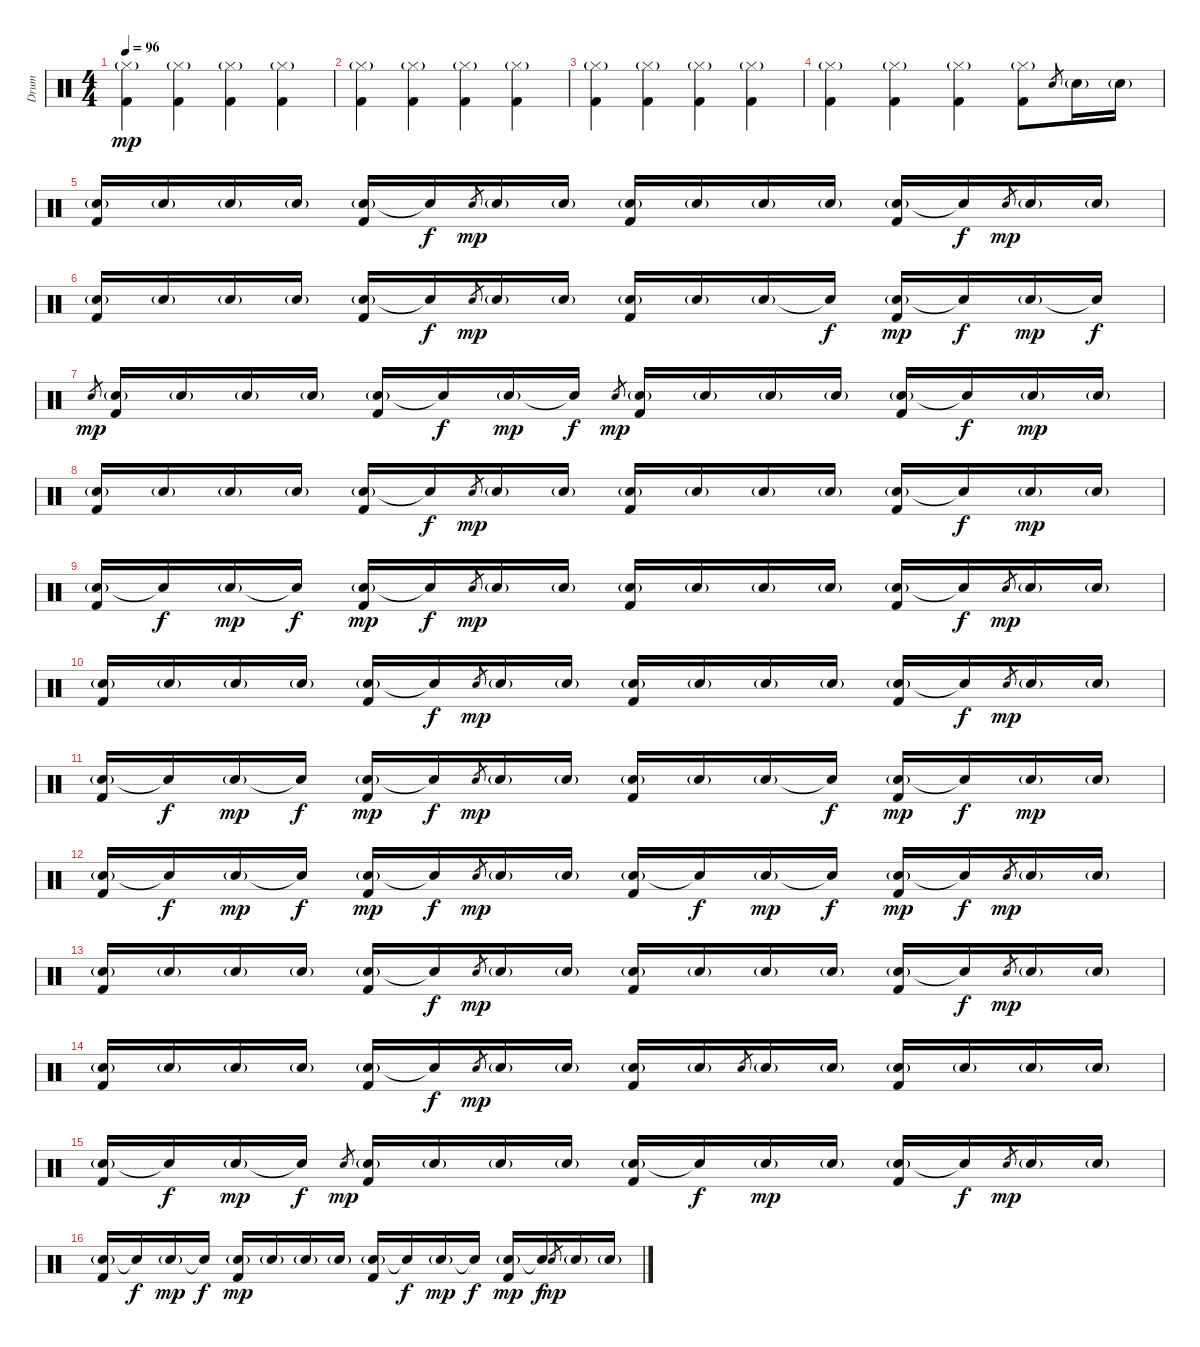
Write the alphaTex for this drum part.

\track ("Drum" "Drum") {instrument percussion}
\staff {score}
\articulation defaults
\ts (4 4)
\tempo 96
\clef neutral
\ks c
("Kick (hit) 2" "Hi-Hat (closed)"{g}).4{dy mp} ("Kick (hit) 2" "Hi-Hat (closed)"{g}).4 ("Kick (hit) 2" "Hi-Hat (closed)"{g}).4 ("Kick (hit) 2" "Hi-Hat (closed)"{g}).4 |
("Kick (hit) 2" "Hi-Hat (closed)"{g}).4 ("Kick (hit) 2" "Hi-Hat (closed)"{g}).4 ("Kick (hit) 2" "Hi-Hat (closed)"{g}).4 ("Kick (hit) 2" "Hi-Hat (closed)"{g}).4 |
("Kick (hit) 2" "Hi-Hat (closed)"{g}).4 ("Kick (hit) 2" "Hi-Hat (closed)"{g}).4 ("Kick (hit) 2" "Hi-Hat (closed)"{g}).4 ("Kick (hit) 2" "Hi-Hat (closed)"{g}).4 |
("Kick (hit) 2" "Hi-Hat (closed)"{g}).4 ("Kick (hit) 2" "Hi-Hat (closed)"{g}).4 ("Kick (hit) 2" "Hi-Hat (closed)"{g}).4 ("Kick (hit) 2" "Hi-Hat (closed)"{g}).8 "Electric Snare (hit)".8{gr} "Electric Snare (hit)"{g}.16 "Electric Snare (hit)"{g}.16 |
("Electric Snare (hit)"{g} "Kick (hit) 2").16 "Electric Snare (hit)"{g}.16 "Electric Snare (hit)"{g}.16 "Electric Snare (hit)"{g}.16 ("Electric Snare (hit)"{g} "Kick (hit) 2").16 "Snare (hit)"{t}.16{dy f} "Electric Snare (hit)".8{gr dy mp} "Electric Snare (hit)"{g}.16 "Electric Snare (hit)"{g}.16 ("Electric Snare (hit)"{g} "Kick (hit) 2").16 "Electric Snare (hit)"{g}.16 "Electric Snare (hit)"{g}.16 "Electric Snare (hit)"{g}.16 ("Electric Snare (hit)"{g} "Kick (hit) 2").16 "Electric Snare (hit)"{t}.16{dy f} "Electric Snare (hit)".8{gr dy mp} "Electric Snare (hit)"{g}.16 "Electric Snare (hit)"{g}.16 |
("Electric Snare (hit)"{g} "Kick (hit) 2").16 "Electric Snare (hit)"{g}.16 "Electric Snare (hit)"{g}.16 "Electric Snare (hit)"{g}.16 ("Electric Snare (hit)"{g} "Kick (hit) 2").16 "Snare (hit)"{t}.16{dy f} "Electric Snare (hit)".8{gr dy mp} "Electric Snare (hit)"{g}.16 "Electric Snare (hit)"{g}.16 ("Electric Snare (hit)"{g} "Kick (hit) 2").16 "Electric Snare (hit)"{g}.16 "Electric Snare (hit)"{g}.16 "Electric Snare (hit)"{t}.16{dy f} ("Electric Snare (hit)"{g} "Kick (hit) 2").16{dy mp} "Electric Snare (hit)"{t}.16{dy f} "Electric Snare (hit)"{g}.16{dy mp} "Electric Snare (hit)"{t}.16{dy f} |
"Electric Snare (hit)".8{gr dy mp} ("Electric Snare (hit)"{g} "Kick (hit) 2").16 "Electric Snare (hit)"{g}.16 "Electric Snare (hit)"{g}.16 "Electric Snare (hit)"{g}.16 ("Electric Snare (hit)"{g} "Kick (hit) 2").16 "Snare (hit)"{t}.16{dy f} "Electric Snare (hit)"{g}.16{dy mp} "Snare (hit)"{t}.16{dy f} "Electric Snare (hit)".8{gr dy mp} ("Electric Snare (hit)"{g} "Kick (hit) 2").16 "Electric Snare (hit)"{g}.16 "Electric Snare (hit)"{g}.16 "Electric Snare (hit)"{g}.16 ("Electric Snare (hit)"{g} "Kick (hit) 2").16 "Snare (hit)"{t}.16{dy f} "Electric Snare (hit)"{g}.16{dy mp} "Electric Snare (hit)"{g}.16 |
("Electric Snare (hit)"{g} "Kick (hit) 2").16 "Electric Snare (hit)"{g}.16 "Electric Snare (hit)"{g}.16 "Electric Snare (hit)"{g}.16 ("Electric Snare (hit)"{g} "Kick (hit) 2").16 "Snare (hit)"{t}.16{dy f} "Electric Snare (hit)".8{gr dy mp} "Electric Snare (hit)"{g}.16 "Electric Snare (hit)"{g}.16 ("Electric Snare (hit)"{g} "Kick (hit) 2").16 "Electric Snare (hit)"{g}.16 "Electric Snare (hit)"{g}.16 "Electric Snare (hit)"{g}.16 ("Electric Snare (hit)"{g} "Kick (hit) 2").16 "Snare (hit)"{t}.16{dy f} "Electric Snare (hit)"{g}.16{dy mp} "Electric Snare (hit)"{g}.16 |
("Electric Snare (hit)"{g} "Kick (hit) 2").16 "Snare (hit)"{t}.16{dy f} "Electric Snare (hit)"{g}.16{dy mp} "Snare (hit)"{t}.16{dy f} ("Electric Snare (hit)"{g} "Kick (hit) 2").16{dy mp} "Snare (hit)"{t}.16{dy f} "Electric Snare (hit)".8{gr dy mp} "Electric Snare (hit)"{g}.16 "Electric Snare (hit)"{g}.16 ("Electric Snare (hit)"{g} "Kick (hit) 2").16 "Electric Snare (hit)"{g}.16 "Electric Snare (hit)"{g}.16 "Electric Snare (hit)"{g}.16 ("Electric Snare (hit)"{g} "Kick (hit) 2").16 "Snare (hit)"{t}.16{dy f} "Electric Snare (hit)".8{gr dy mp} "Electric Snare (hit)"{g}.16 "Electric Snare (hit)"{g}.16 |
("Electric Snare (hit)"{g} "Kick (hit) 2").16 "Electric Snare (hit)"{g}.16 "Electric Snare (hit)"{g}.16 "Electric Snare (hit)"{g}.16 ("Electric Snare (hit)"{g} "Kick (hit) 2").16 "Snare (hit)"{t}.16{dy f} "Electric Snare (hit)".8{gr dy mp} "Electric Snare (hit)"{g}.16 "Electric Snare (hit)"{g}.16 ("Electric Snare (hit)"{g} "Kick (hit) 2").16 "Electric Snare (hit)"{g}.16 "Electric Snare (hit)"{g}.16 "Electric Snare (hit)"{g}.16 ("Electric Snare (hit)"{g} "Kick (hit) 2").16 "Snare (hit)"{t}.16{dy f} "Electric Snare (hit)".8{gr dy mp} "Electric Snare (hit)"{g}.16 "Electric Snare (hit)"{g}.16 |
("Electric Snare (hit)"{g} "Kick (hit) 2").16 "Electric Snare (hit)"{t}.16{dy f} "Electric Snare (hit)"{g}.16{dy mp} "Electric Snare (hit)"{t}.16{dy f} ("Electric Snare (hit)"{g} "Kick (hit) 2").16{dy mp} "Snare (hit)"{t}.16{dy f} "Electric Snare (hit)".8{gr dy mp} "Electric Snare (hit)"{g}.16 "Electric Snare (hit)"{g}.16 ("Electric Snare (hit)"{g} "Kick (hit) 2").16 "Electric Snare (hit)"{g}.16 "Electric Snare (hit)"{g}.16 "Electric Snare (hit)"{t}.16{dy f} ("Electric Snare (hit)"{g} "Kick (hit) 2").16{dy mp} "Snare (hit)"{t}.16{dy f} "Electric Snare (hit)"{g}.16{dy mp} "Electric Snare (hit)"{g}.16 |
("Electric Snare (hit)"{g} "Kick (hit) 2").16 "Snare (hit)"{t}.16{dy f} "Electric Snare (hit)"{g}.16{dy mp} "Snare (hit)"{t}.16{dy f} ("Electric Snare (hit)"{g} "Kick (hit) 2").16{dy mp} "Snare (hit)"{t}.16{dy f} "Electric Snare (hit)".8{gr dy mp} "Electric Snare (hit)"{g}.16 "Electric Snare (hit)"{g}.16 ("Electric Snare (hit)"{g} "Kick (hit) 2").16 "Electric Snare (hit)"{t}.16{dy f} "Electric Snare (hit)"{g}.16{dy mp} "Snare (hit)"{t}.16{dy f} ("Electric Snare (hit)"{g} "Kick (hit) 2").16{dy mp} "Snare (hit)"{t}.16{dy f} "Electric Snare (hit)".8{gr dy mp} "Electric Snare (hit)"{g}.16 "Electric Snare (hit)"{g}.16 |
("Electric Snare (hit)"{g} "Kick (hit) 2").16 "Electric Snare (hit)"{g}.16 "Electric Snare (hit)"{g}.16 "Electric Snare (hit)"{g}.16 ("Electric Snare (hit)"{g} "Kick (hit) 2").16 "Snare (hit)"{t}.16{dy f} "Electric Snare (hit)".8{gr dy mp} "Electric Snare (hit)"{g}.16 "Electric Snare (hit)"{g}.16 ("Electric Snare (hit)"{g} "Kick (hit) 2").16 "Electric Snare (hit)"{g}.16 "Electric Snare (hit)"{g}.16 "Electric Snare (hit)"{g}.16 ("Electric Snare (hit)"{g} "Kick (hit) 2").16 "Snare (hit)"{t}.16{dy f} "Electric Snare (hit)".8{gr dy mp} "Electric Snare (hit)"{g}.16 "Electric Snare (hit)"{g}.16 |
("Electric Snare (hit)"{g} "Kick (hit) 2").16 "Electric Snare (hit)"{g}.16 "Electric Snare (hit)"{g}.16 "Electric Snare (hit)"{g}.16 ("Electric Snare (hit)"{g} "Kick (hit) 2").16 "Snare (hit)"{t}.16{dy f} "Electric Snare (hit)".8{gr dy mp} "Electric Snare (hit)"{g}.16 "Electric Snare (hit)"{g}.16 ("Electric Snare (hit)"{g} "Kick (hit) 2").16 "Electric Snare (hit)"{g}.16 "Electric Snare (hit)".8{gr} "Electric Snare (hit)"{g}.16 "Electric Snare (hit)"{g}.16 ("Electric Snare (hit)"{g} "Kick (hit) 2").16 "Electric Snare (hit)"{g}.16 "Electric Snare (hit)"{g}.16 "Electric Snare (hit)"{g}.16 |
("Electric Snare (hit)"{g} "Kick (hit) 2").16 "Snare (hit)"{t}.16{dy f} "Electric Snare (hit)"{g}.16{dy mp} "Snare (hit)"{t}.16{dy f} "Electric Snare (hit)".8{gr dy mp} ("Electric Snare (hit)"{g} "Kick (hit) 2").16 "Electric Snare (hit)"{g}.16 "Electric Snare (hit)"{g}.16 "Electric Snare (hit)"{g}.16 ("Electric Snare (hit)"{g} "Kick (hit) 2").16 "Snare (hit)"{t}.16{dy f} "Electric Snare (hit)"{g}.16{dy mp} "Electric Snare (hit)"{g}.16 ("Electric Snare (hit)"{g} "Kick (hit) 2").16 "Snare (hit)"{t}.16{dy f} "Electric Snare (hit)".8{gr dy mp} "Electric Snare (hit)"{g}.16 "Electric Snare (hit)"{g}.16 |
("Electric Snare (hit)"{g} "Kick (hit) 2").16 "Electric Snare (hit)"{t}.16{dy f} "Electric Snare (hit)"{g}.16{dy mp} "Electric Snare (hit)"{t}.16{dy f} ("Electric Snare (hit)"{g} "Kick (hit) 2").16{dy mp} "Electric Snare (hit)"{g}.16 "Electric Snare (hit)"{g}.16 "Electric Snare (hit)"{g}.16 ("Electric Snare (hit)"{g} "Kick (hit) 2").16 "Snare (hit)"{t}.16{dy f} "Electric Snare (hit)"{g}.16{dy mp} "Snare (hit)"{t}.16{dy f} ("Electric Snare (hit)"{g} "Kick (hit) 2").16{dy mp} "Snare (hit)"{t}.16{dy f} "Electric Snare (hit)".8{gr dy mp} "Electric Snare (hit)"{g}.16 "Electric Snare (hit)"{g}.16
